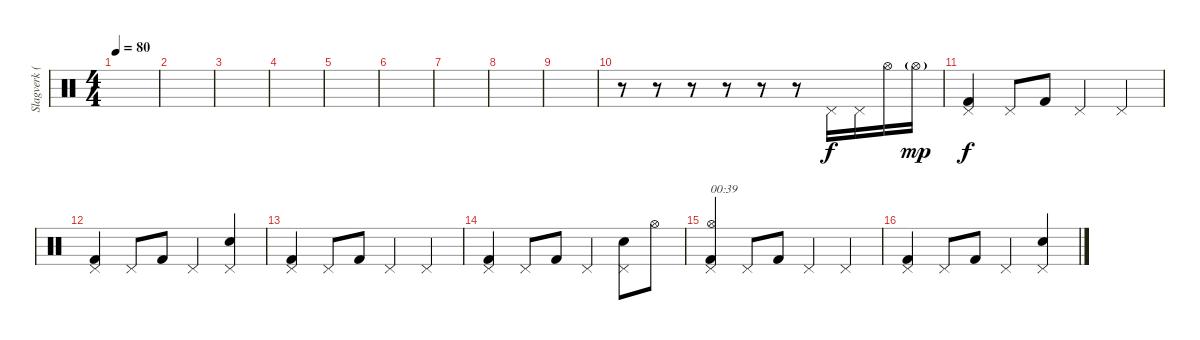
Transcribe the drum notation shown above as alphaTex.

\track ("Slagverk (99% Correct!)" "Slagverk (") {instrument percussion}
\staff {score}
\articulation defaults
\ts (4 4)
\tempo 80
\clef neutral
\ks c
|
|
|
|
|
|
|
|
|
r.8 r.8 r.8 r.8 r.8 r.8 "Pedal Hi-Hat (hit)".16 "Pedal Hi-Hat (hit)".16 "Hi-Hat (open)".16 "Hi-Hat (open)"{g}.16{dy mp} |
("Pedal Hi-Hat (hit)" "Kick (hit) 2").4{dy f} "Pedal Hi-Hat (hit)".8 "Kick (hit) 2".8 "Pedal Hi-Hat (hit)".4 "Pedal Hi-Hat (hit)".4 |
("Pedal Hi-Hat (hit)" "Kick (hit) 2").4 "Pedal Hi-Hat (hit)".8 "Kick (hit) 2".8 "Pedal Hi-Hat (hit)".4 ("Pedal Hi-Hat (hit)" "Snare (hit) 2").4 |
("Pedal Hi-Hat (hit)" "Kick (hit) 2").4 "Pedal Hi-Hat (hit)".8 "Kick (hit) 2".8 "Pedal Hi-Hat (hit)".4 "Pedal Hi-Hat (hit)".4 |
("Pedal Hi-Hat (hit)" "Kick (hit) 2").4 "Pedal Hi-Hat (hit)".8 "Kick (hit) 2".8 "Pedal Hi-Hat (hit)".4 ("Pedal Hi-Hat (hit)" "Snare (hit) 2").8 "Hi-Hat (open)".8 |
("Pedal Hi-Hat (hit)" "Hi-Hat (open)" "Kick (hit) 2").4{txt "00:39"} "Pedal Hi-Hat (hit)".8 "Kick (hit) 2".8 "Pedal Hi-Hat (hit)".4 "Pedal Hi-Hat (hit)".4 |
("Pedal Hi-Hat (hit)" "Kick (hit) 2").4 "Pedal Hi-Hat (hit)".8 "Kick (hit) 2".8 "Pedal Hi-Hat (hit)".4 ("Pedal Hi-Hat (hit)" "Snare (hit) 2").4
